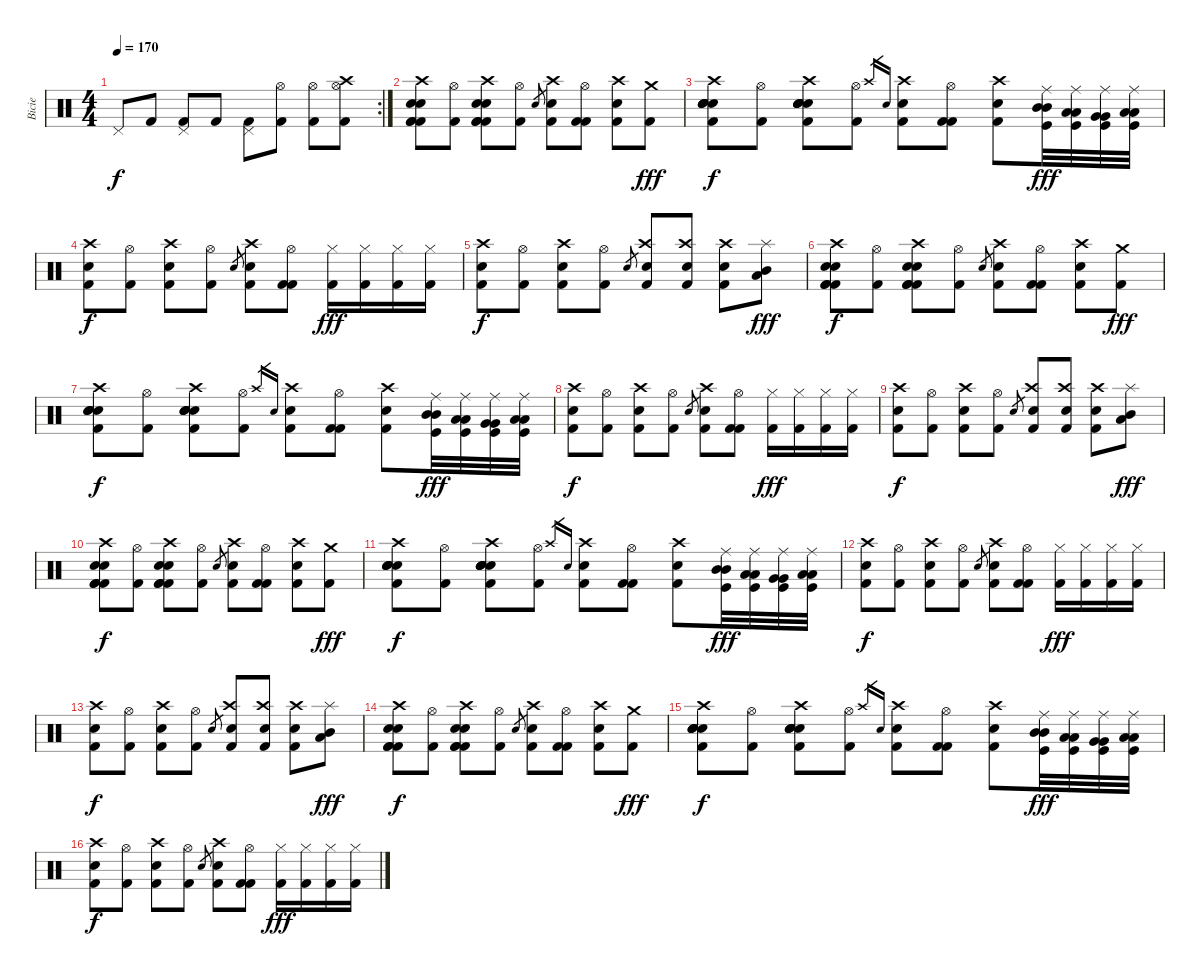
\track ("Bicie" "Bicie") {instrument percussion}
\staff {score}
\articulation defaults
\rc 2
\ts (4 4)
\tempo 170
\clef neutral
\ks c "Pedal Hi-Hat (hit)".8{dy f} "Kick (hit) 2".8
("Pedal Hi-Hat (hit)" "Kick (hit) 2").8 "Kick (hit) 2".8 ("Pedal Hi-Hat (hit)" "Kick (hit) 2").8 ("Hi-Hat (open)" "Kick (hit) 2").8 ("Hi-Hat (open)" "Kick (hit) 2").8 ("Crash high (hit)" "Hi-Hat (open)" "Kick (hit) 2").8 |
("Crash high (hit)" "Electric Snare (hit)" "Kick (hit) 2" "Kick (hit) 2" "Kick (hit) 2" "Electric Snare (hit)").8 ("Hi-Hat (open)" "Kick (hit) 2").8 ("Crash high (hit)" "Electric Snare (hit)" "Kick (hit) 2" "Kick (hit) 2" "Kick (hit) 2" "Electric Snare (hit)").8 ("Hi-Hat (open)" "Kick (hit) 2").8 "Electric Snare (hit)".8{gr} ("Crash high (hit)" "Kick (hit) 2" "Electric Snare (hit)").8 ("Hi-Hat (open)" "Kick (hit) 2" "Kick (hit) 2").8 ("Crash high (hit)" "Kick (hit) 2" "Electric Snare (hit)").8 ("Crash medium (hit)" "Kick (hit) 2").8{dy fff} |
("Crash high (hit)" "Electric Snare (hit)" "Electric Snare (hit)" "Electric Snare (hit)" "Kick (hit) 2" "Electric Snare (hit)").8{dy f} ("Hi-Hat (open)" "Kick (hit) 2").8 ("Crash high (hit)" "Electric Snare (hit)" "Electric Snare (hit)" "Electric Snare (hit)" "Kick (hit) 2" "Electric Snare (hit)").8 ("Hi-Hat (open)" "Kick (hit) 2").8 "Crash high (hit)".16{gr} "Electric Snare (hit)".16{gr} ("Crash high (hit)" "Kick (hit) 2" "Electric Snare (hit)").8 ("Hi-Hat (open)" "Kick (hit) 2" "Kick (hit) 2").8 ("Crash high (hit)" "Kick (hit) 2" "Electric Snare (hit)").8 ("Ride (middle)" "Mid Tom (hit)" "Kick (hit)" "Mid Tom (hit)").32{dy fff} ("Ride (middle)" "Low Tom (hit)" "Kick (hit)" "Low Tom (hit)").32 ("Ride (middle)" "Very Low Tom (hit)" "Kick (hit)" "Very Low Tom (hit)").32 ("Ride (middle)" "Low Floor Tom (hit)" "Kick (hit)" "Low Floor Tom (hit)").32 |
("Crash high (hit)" "Kick (hit) 2" "Electric Snare (hit)").8{dy f} ("Hi-Hat (open)" "Kick (hit) 2").8 ("Crash high (hit)" "Kick (hit) 2" "Electric Snare (hit)").8 ("Hi-Hat (open)" "Kick (hit) 2").8 "Electric Snare (hit)".8{gr} ("Crash high (hit)" "Kick (hit) 2" "Electric Snare (hit)").8 ("Hi-Hat (open)" "Kick (hit) 2" "Kick (hit) 2").8 ("Hi-Hat (closed)" "Kick (hit) 2").16{dy fff} ("Hi-Hat (closed)" "Kick (hit) 2").16 ("Hi-Hat (closed)" "Kick (hit) 2").16 ("Hi-Hat (closed)" "Kick (hit) 2").16 |
("Crash high (hit)" "Kick (hit) 2" "Electric Snare (hit)").8{dy f} ("Hi-Hat (open)" "Kick (hit) 2").8 ("Crash high (hit)" "Kick (hit) 2" "Electric Snare (hit)").8 ("Hi-Hat (open)" "Kick (hit) 2").8 "Electric Snare (hit)".8{gr} ("Crash high (hit)" "Kick (hit) 2" "Electric Snare (hit)").8 ("Crash high (hit)" "Kick (hit) 2" "Electric Snare (hit)").8 ("Crash high (hit)" "Kick (hit) 2" "Electric Snare (hit)").8 ("Splash (hit)" "Low Floor Tom (hit)" "Mid Tom (hit)").8{dy fff} |
("Crash high (hit)" "Electric Snare (hit)" "Kick (hit) 2" "Kick (hit) 2" "Kick (hit) 2" "Electric Snare (hit)").8{dy f} ("Hi-Hat (open)" "Kick (hit) 2").8 ("Crash high (hit)" "Electric Snare (hit)" "Kick (hit) 2" "Kick (hit) 2" "Kick (hit) 2" "Electric Snare (hit)").8 ("Hi-Hat (open)" "Kick (hit) 2").8 "Electric Snare (hit)".8{gr} ("Crash high (hit)" "Kick (hit) 2" "Electric Snare (hit)").8 ("Hi-Hat (open)" "Kick (hit) 2" "Kick (hit) 2").8 ("Crash high (hit)" "Kick (hit) 2" "Electric Snare (hit)").8 ("Crash medium (hit)" "Kick (hit) 2").8{dy fff} |
("Crash high (hit)" "Electric Snare (hit)" "Electric Snare (hit)" "Electric Snare (hit)" "Kick (hit) 2" "Electric Snare (hit)").8{dy f} ("Hi-Hat (open)" "Kick (hit) 2").8 ("Crash high (hit)" "Electric Snare (hit)" "Electric Snare (hit)" "Electric Snare (hit)" "Kick (hit) 2" "Electric Snare (hit)").8 ("Hi-Hat (open)" "Kick (hit) 2").8 "Crash high (hit)".16{gr} "Electric Snare (hit)".16{gr} ("Crash high (hit)" "Kick (hit) 2" "Electric Snare (hit)").8 ("Hi-Hat (open)" "Kick (hit) 2" "Kick (hit) 2").8 ("Crash high (hit)" "Kick (hit) 2" "Electric Snare (hit)").8 ("Ride (middle)" "Mid Tom (hit)" "Kick (hit)" "Mid Tom (hit)").32{dy fff} ("Ride (middle)" "Low Tom (hit)" "Kick (hit)" "Low Tom (hit)").32 ("Ride (middle)" "Very Low Tom (hit)" "Kick (hit)" "Very Low Tom (hit)").32 ("Ride (middle)" "Low Floor Tom (hit)" "Kick (hit)" "Low Floor Tom (hit)").32 |
("Crash high (hit)" "Kick (hit) 2" "Electric Snare (hit)").8{dy f} ("Hi-Hat (open)" "Kick (hit) 2").8 ("Crash high (hit)" "Kick (hit) 2" "Electric Snare (hit)").8 ("Hi-Hat (open)" "Kick (hit) 2").8 "Electric Snare (hit)".8{gr} ("Crash high (hit)" "Kick (hit) 2" "Electric Snare (hit)").8 ("Hi-Hat (open)" "Kick (hit) 2" "Kick (hit) 2").8 ("Hi-Hat (closed)" "Kick (hit) 2").16{dy fff} ("Hi-Hat (closed)" "Kick (hit) 2").16 ("Hi-Hat (closed)" "Kick (hit) 2").16 ("Hi-Hat (closed)" "Kick (hit) 2").16 |
("Crash high (hit)" "Kick (hit) 2" "Electric Snare (hit)").8{dy f} ("Hi-Hat (open)" "Kick (hit) 2").8 ("Crash high (hit)" "Kick (hit) 2" "Electric Snare (hit)").8 ("Hi-Hat (open)" "Kick (hit) 2").8 "Electric Snare (hit)".8{gr} ("Crash high (hit)" "Kick (hit) 2" "Electric Snare (hit)").8 ("Crash high (hit)" "Kick (hit) 2" "Electric Snare (hit)").8 ("Crash high (hit)" "Kick (hit) 2" "Electric Snare (hit)").8 ("Splash (hit)" "Low Floor Tom (hit)" "Mid Tom (hit)").8{dy fff} |
("Crash high (hit)" "Electric Snare (hit)" "Kick (hit) 2" "Kick (hit) 2" "Kick (hit) 2" "Electric Snare (hit)").8{dy f} ("Hi-Hat (open)" "Kick (hit) 2").8 ("Crash high (hit)" "Electric Snare (hit)" "Kick (hit) 2" "Kick (hit) 2" "Kick (hit) 2" "Electric Snare (hit)").8 ("Hi-Hat (open)" "Kick (hit) 2").8 "Electric Snare (hit)".8{gr} ("Crash high (hit)" "Kick (hit) 2" "Electric Snare (hit)").8 ("Hi-Hat (open)" "Kick (hit) 2" "Kick (hit) 2").8 ("Crash high (hit)" "Kick (hit) 2" "Electric Snare (hit)").8 ("Crash medium (hit)" "Kick (hit) 2").8{dy fff} |
("Crash high (hit)" "Electric Snare (hit)" "Electric Snare (hit)" "Electric Snare (hit)" "Kick (hit) 2" "Electric Snare (hit)").8{dy f} ("Hi-Hat (open)" "Kick (hit) 2").8 ("Crash high (hit)" "Electric Snare (hit)" "Electric Snare (hit)" "Electric Snare (hit)" "Kick (hit) 2" "Electric Snare (hit)").8 ("Hi-Hat (open)" "Kick (hit) 2").8 "Crash high (hit)".16{gr} "Electric Snare (hit)".16{gr} ("Crash high (hit)" "Kick (hit) 2" "Electric Snare (hit)").8 ("Hi-Hat (open)" "Kick (hit) 2" "Kick (hit) 2").8 ("Crash high (hit)" "Kick (hit) 2" "Electric Snare (hit)").8 ("Ride (middle)" "Mid Tom (hit)" "Kick (hit)" "Mid Tom (hit)").32{dy fff} ("Ride (middle)" "Low Tom (hit)" "Kick (hit)" "Low Tom (hit)").32 ("Ride (middle)" "Very Low Tom (hit)" "Kick (hit)" "Very Low Tom (hit)").32 ("Ride (middle)" "Low Floor Tom (hit)" "Kick (hit)" "Low Floor Tom (hit)").32 |
("Crash high (hit)" "Kick (hit) 2" "Electric Snare (hit)").8{dy f} ("Hi-Hat (open)" "Kick (hit) 2").8 ("Crash high (hit)" "Kick (hit) 2" "Electric Snare (hit)").8 ("Hi-Hat (open)" "Kick (hit) 2").8 "Electric Snare (hit)".8{gr} ("Crash high (hit)" "Kick (hit) 2" "Electric Snare (hit)").8 ("Hi-Hat (open)" "Kick (hit) 2" "Kick (hit) 2").8 ("Hi-Hat (closed)" "Kick (hit) 2").16{dy fff} ("Hi-Hat (closed)" "Kick (hit) 2").16 ("Hi-Hat (closed)" "Kick (hit) 2").16 ("Hi-Hat (closed)" "Kick (hit) 2").16 |
("Crash high (hit)" "Kick (hit) 2" "Electric Snare (hit)").8{dy f} ("Hi-Hat (open)" "Kick (hit) 2").8 ("Crash high (hit)" "Kick (hit) 2" "Electric Snare (hit)").8 ("Hi-Hat (open)" "Kick (hit) 2").8 "Electric Snare (hit)".8{gr} ("Crash high (hit)" "Kick (hit) 2" "Electric Snare (hit)").8 ("Crash high (hit)" "Kick (hit) 2" "Electric Snare (hit)").8 ("Crash high (hit)" "Kick (hit) 2" "Electric Snare (hit)").8 ("Splash (hit)" "Low Floor Tom (hit)" "Mid Tom (hit)").8{dy fff} |
("Crash high (hit)" "Electric Snare (hit)" "Kick (hit) 2" "Kick (hit) 2" "Kick (hit) 2" "Electric Snare (hit)").8{dy f} ("Hi-Hat (open)" "Kick (hit) 2").8 ("Crash high (hit)" "Electric Snare (hit)" "Kick (hit) 2" "Kick (hit) 2" "Kick (hit) 2" "Electric Snare (hit)").8 ("Hi-Hat (open)" "Kick (hit) 2").8 "Electric Snare (hit)".8{gr} ("Crash high (hit)" "Kick (hit) 2" "Electric Snare (hit)").8 ("Hi-Hat (open)" "Kick (hit) 2" "Kick (hit) 2").8 ("Crash high (hit)" "Kick (hit) 2" "Electric Snare (hit)").8 ("Crash medium (hit)" "Kick (hit) 2").8{dy fff} |
("Crash high (hit)" "Electric Snare (hit)" "Electric Snare (hit)" "Electric Snare (hit)" "Kick (hit) 2" "Electric Snare (hit)").8{dy f} ("Hi-Hat (open)" "Kick (hit) 2").8 ("Crash high (hit)" "Electric Snare (hit)" "Electric Snare (hit)" "Electric Snare (hit)" "Kick (hit) 2" "Electric Snare (hit)").8 ("Hi-Hat (open)" "Kick (hit) 2").8 "Crash high (hit)".16{gr} "Electric Snare (hit)".16{gr} ("Crash high (hit)" "Kick (hit) 2" "Electric Snare (hit)").8 ("Hi-Hat (open)" "Kick (hit) 2" "Kick (hit) 2").8 ("Crash high (hit)" "Kick (hit) 2" "Electric Snare (hit)").8 ("Ride (middle)" "Mid Tom (hit)" "Kick (hit)" "Mid Tom (hit)").32{dy fff} ("Ride (middle)" "Low Tom (hit)" "Kick (hit)" "Low Tom (hit)").32 ("Ride (middle)" "Very Low Tom (hit)" "Kick (hit)" "Very Low Tom (hit)").32 ("Ride (middle)" "Low Floor Tom (hit)" "Kick (hit)" "Low Floor Tom (hit)").32 |
("Crash high (hit)" "Kick (hit) 2" "Electric Snare (hit)").8{dy f} ("Hi-Hat (open)" "Kick (hit) 2").8 ("Crash high (hit)" "Kick (hit) 2" "Electric Snare (hit)").8 ("Hi-Hat (open)" "Kick (hit) 2").8 "Electric Snare (hit)".8{gr} ("Crash high (hit)" "Kick (hit) 2" "Electric Snare (hit)").8 ("Hi-Hat (open)" "Kick (hit) 2" "Kick (hit) 2").8 ("Hi-Hat (closed)" "Kick (hit) 2").16{dy fff} ("Hi-Hat (closed)" "Kick (hit) 2").16 ("Hi-Hat (closed)" "Kick (hit) 2").16 ("Hi-Hat (closed)" "Kick (hit) 2").16
